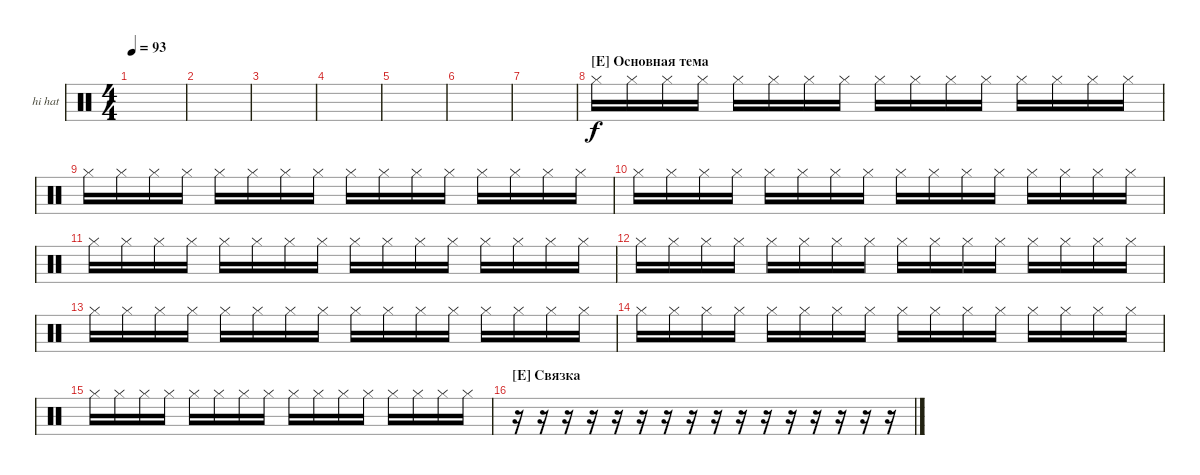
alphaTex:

\bracketExtendMode groupsimilarinstruments
\firstSystemTrackNameOrientation horizontal
\otherSystemsTrackNameOrientation horizontal
\track ("hi hat" "hi hat") {instrument percussion}
\staff {score}
\articulation defaults
\ts (4 4)
\tempo 93
\clef neutral
\scale
0.474178
\ks c
|
\scale
0.262911 |
\scale
0.262911 |
\scale
0.333333 |
\scale
0.333333 |
\scale
0.333333 |
\scale
0.333333 |
\section ("E" "Основная тема")
\scale
0.333333 "Hi-Hat (closed)".16 "Hi-Hat (closed)".16 "Hi-Hat (closed)".16 "Hi-Hat (closed)".16 "Hi-Hat (closed)".16 "Hi-Hat (closed)".16 "Hi-Hat (closed)".16 "Hi-Hat (closed)".16 "Hi-Hat (closed)".16 "Hi-Hat (closed)".16 "Hi-Hat (closed)".16 "Hi-Hat (closed)".16 "Hi-Hat (closed)".16 "Hi-Hat (closed)".16 "Hi-Hat (closed)".16 "Hi-Hat (closed)".16 |
\scale
0.333333 "Hi-Hat (closed)".16 "Hi-Hat (closed)".16 "Hi-Hat (closed)".16 "Hi-Hat (closed)".16 "Hi-Hat (closed)".16 "Hi-Hat (closed)".16 "Hi-Hat (closed)".16 "Hi-Hat (closed)".16 "Hi-Hat (closed)".16 "Hi-Hat (closed)".16 "Hi-Hat (closed)".16 "Hi-Hat (closed)".16 "Hi-Hat (closed)".16 "Hi-Hat (closed)".16 "Hi-Hat (closed)".16 "Hi-Hat (closed)".16 |
\scale
0.333333 "Hi-Hat (closed)".16 "Hi-Hat (closed)".16 "Hi-Hat (closed)".16 "Hi-Hat (closed)".16 "Hi-Hat (closed)".16 "Hi-Hat (closed)".16 "Hi-Hat (closed)".16 "Hi-Hat (closed)".16 "Hi-Hat (closed)".16 "Hi-Hat (closed)".16 "Hi-Hat (closed)".16 "Hi-Hat (closed)".16 "Hi-Hat (closed)".16 "Hi-Hat (closed)".16 "Hi-Hat (closed)".16 "Hi-Hat (closed)".16 |
\scale
0.333333 "Hi-Hat (closed)".16 "Hi-Hat (closed)".16 "Hi-Hat (closed)".16 "Hi-Hat (closed)".16 "Hi-Hat (closed)".16 "Hi-Hat (closed)".16 "Hi-Hat (closed)".16 "Hi-Hat (closed)".16 "Hi-Hat (closed)".16 "Hi-Hat (closed)".16 "Hi-Hat (closed)".16 "Hi-Hat (closed)".16 "Hi-Hat (closed)".16 "Hi-Hat (closed)".16 "Hi-Hat (closed)".16 "Hi-Hat (closed)".16 |
\scale
0.333333 "Hi-Hat (closed)".16 "Hi-Hat (closed)".16 "Hi-Hat (closed)".16 "Hi-Hat (closed)".16 "Hi-Hat (closed)".16 "Hi-Hat (closed)".16 "Hi-Hat (closed)".16 "Hi-Hat (closed)".16 "Hi-Hat (closed)".16 "Hi-Hat (closed)".16 "Hi-Hat (closed)".16 "Hi-Hat (closed)".16 "Hi-Hat (closed)".16 "Hi-Hat (closed)".16 "Hi-Hat (closed)".16 "Hi-Hat (closed)".16 |
\scale
0.333333 "Hi-Hat (closed)".16 "Hi-Hat (closed)".16 "Hi-Hat (closed)".16 "Hi-Hat (closed)".16 "Hi-Hat (closed)".16 "Hi-Hat (closed)".16 "Hi-Hat (closed)".16 "Hi-Hat (closed)".16 "Hi-Hat (closed)".16 "Hi-Hat (closed)".16 "Hi-Hat (closed)".16 "Hi-Hat (closed)".16 "Hi-Hat (closed)".16 "Hi-Hat (closed)".16 "Hi-Hat (closed)".16 "Hi-Hat (closed)".16 |
\scale
0.333333 "Hi-Hat (closed)".16 "Hi-Hat (closed)".16 "Hi-Hat (closed)".16 "Hi-Hat (closed)".16 "Hi-Hat (closed)".16 "Hi-Hat (closed)".16 "Hi-Hat (closed)".16 "Hi-Hat (closed)".16 "Hi-Hat (closed)".16 "Hi-Hat (closed)".16 "Hi-Hat (closed)".16 "Hi-Hat (closed)".16 "Hi-Hat (closed)".16 "Hi-Hat (closed)".16 "Hi-Hat (closed)".16 "Hi-Hat (closed)".16 |
\scale
0.333333 "Hi-Hat (closed)".16 "Hi-Hat (closed)".16 "Hi-Hat (closed)".16 "Hi-Hat (closed)".16 "Hi-Hat (closed)".16 "Hi-Hat (closed)".16 "Hi-Hat (closed)".16 "Hi-Hat (closed)".16 "Hi-Hat (closed)".16 "Hi-Hat (closed)".16 "Hi-Hat (closed)".16 "Hi-Hat (closed)".16 "Hi-Hat (closed)".16 "Hi-Hat (closed)".16 "Hi-Hat (closed)".16 "Hi-Hat (closed)".16 |
\section ("E" "Связка")
\scale
0.333333 r.16 r.16 r.16 r.16 r.16 r.16 r.16 r.16 r.16 r.16 r.16 r.16 r.16 r.16 r.16 r.16
